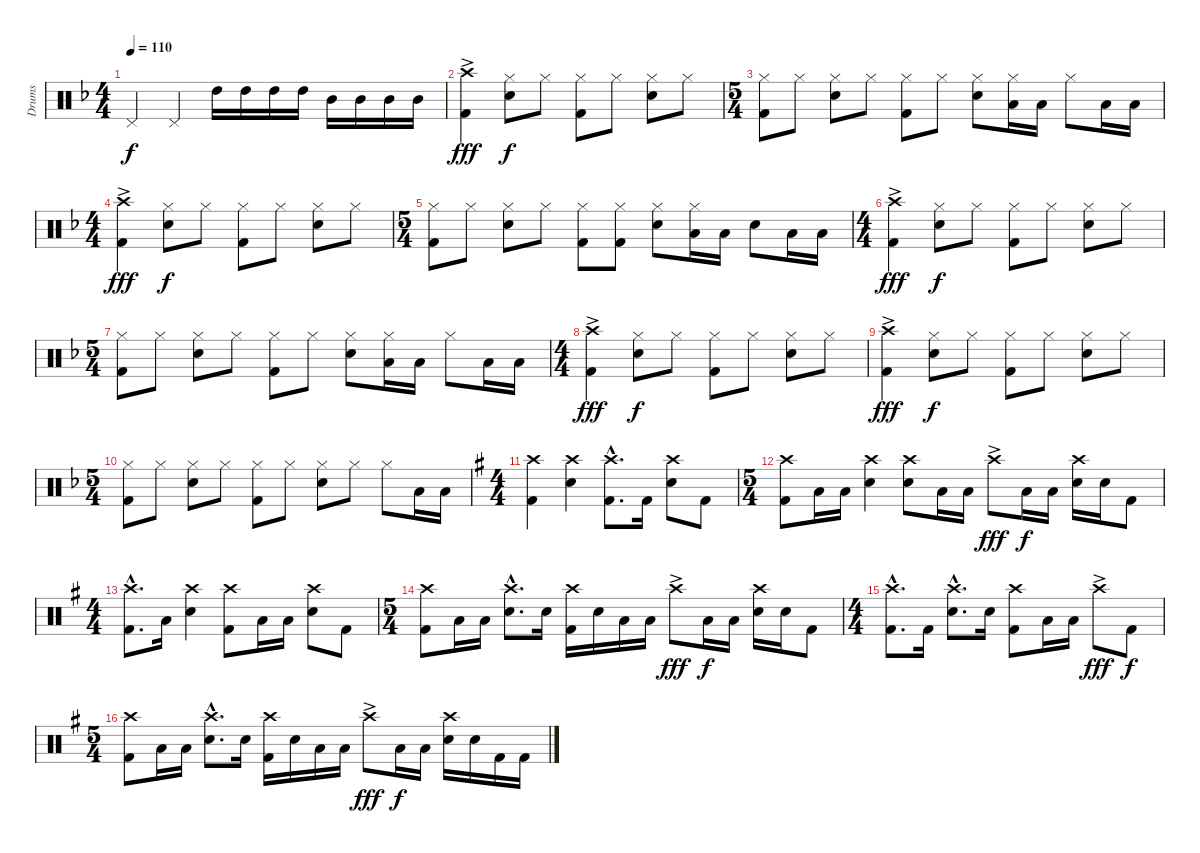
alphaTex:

\track ("Drums" "Drums") {instrument percussion}
\staff {score}
\articulation defaults
\ts (4 4)
\tempo 110
\clef neutral
\ks f "Pedal Hi-Hat (hit)".4{dy f} "Pedal Hi-Hat (hit)".4 "High Tom (hit)".16 "High Tom (hit)".16 "High Tom (hit)".16 "High Tom (hit)".16 "Mid Tom (hit)".16 "Mid Tom (hit)".16 "Mid Tom (hit)".16 "Mid Tom (hit)".16
|
("Kick (hit) 2" "Crash high (hit)"{ac}).4{dy fff} ("Snare (hit) 2" "Hi-Hat (closed)").8{dy f} "Hi-Hat (closed)".8 ("Kick (hit) 2" "Hi-Hat (closed)").8 "Hi-Hat (closed)".8 ("Snare (hit) 2" "Hi-Hat (closed)").8 "Hi-Hat (closed)".8 |
\ts (5 4)
("Kick (hit) 2" "Hi-Hat (closed)").8 "Hi-Hat (closed)".8 ("Snare (hit) 2" "Hi-Hat (closed)").8 "Hi-Hat (closed)".8 ("Kick (hit) 2" "Hi-Hat (closed)").8 "Hi-Hat (closed)".8 ("Snare (hit) 2" "Hi-Hat (closed)").8 ("Low Floor Tom (hit)" "Hi-Hat (closed)").16 "Low Floor Tom (hit)".16 "Hi-Hat (closed)".8 "Low Floor Tom (hit)".16 "Low Floor Tom (hit)".16 |
\ts (4 4)
("Kick (hit) 2" "Crash high (hit)"{ac}).4{dy fff} ("Snare (hit) 2" "Hi-Hat (closed)").8{dy f} "Hi-Hat (closed)".8 ("Kick (hit) 2" "Hi-Hat (closed)").8 "Hi-Hat (closed)".8 ("Snare (hit) 2" "Hi-Hat (closed)").8 "Hi-Hat (closed)".8 |
\ts (5 4)
("Kick (hit) 2" "Hi-Hat (closed)").8 "Hi-Hat (closed)".8 ("Snare (hit) 2" "Hi-Hat (closed)").8 "Hi-Hat (closed)".8 ("Kick (hit) 2" "Hi-Hat (closed)").8 ("Kick (hit) 2" "Hi-Hat (closed)").8 ("Snare (hit) 2" "Hi-Hat (closed)").8 ("Low Floor Tom (hit)" "Hi-Hat (closed)").16 "Low Floor Tom (hit)".16 "Snare (hit) 2".8 "Low Floor Tom (hit)".16 "Low Floor Tom (hit)".16 |
\ts (4 4)
("Kick (hit) 2" "Crash high (hit)"{ac}).4{dy fff} ("Snare (hit) 2" "Hi-Hat (closed)").8{dy f} "Hi-Hat (closed)".8 ("Kick (hit) 2" "Hi-Hat (closed)").8 "Hi-Hat (closed)".8 ("Snare (hit) 2" "Hi-Hat (closed)").8 "Hi-Hat (closed)".8 |
\ts (5 4)
("Kick (hit) 2" "Hi-Hat (closed)").8 "Hi-Hat (closed)".8 ("Snare (hit) 2" "Hi-Hat (closed)").8 "Hi-Hat (closed)".8 ("Kick (hit) 2" "Hi-Hat (closed)").8 "Hi-Hat (closed)".8 ("Snare (hit) 2" "Hi-Hat (closed)").8 ("Low Floor Tom (hit)" "Hi-Hat (closed)").16 "Low Floor Tom (hit)".16 "Hi-Hat (closed)".8 "Low Floor Tom (hit)".16 "Low Floor Tom (hit)".16 |
\ts (4 4)
("Kick (hit) 2" "Crash high (hit)"{ac}).4{dy fff} ("Snare (hit) 2" "Hi-Hat (closed)").8{dy f} "Hi-Hat (closed)".8 ("Kick (hit) 2" "Hi-Hat (closed)").8 "Hi-Hat (closed)".8 ("Snare (hit) 2" "Hi-Hat (closed)").8 "Hi-Hat (closed)".8 |
("Kick (hit) 2" "Crash high (hit)"{ac}).4{dy fff} ("Snare (hit) 2" "Hi-Hat (closed)").8{dy f} "Hi-Hat (closed)".8 ("Kick (hit) 2" "Hi-Hat (closed)").8 "Hi-Hat (closed)".8 ("Snare (hit) 2" "Hi-Hat (closed)").8 "Hi-Hat (closed)".8 |
\ts (5 4)
("Kick (hit) 2" "Hi-Hat (closed)").8 "Hi-Hat (closed)".8 ("Snare (hit) 2" "Hi-Hat (closed)").8 "Hi-Hat (closed)".8 ("Kick (hit) 2" "Hi-Hat (closed)").8 "Hi-Hat (closed)".8 ("Snare (hit) 2" "Hi-Hat (closed)").8 "Hi-Hat (closed)".8 "Hi-Hat (closed)".8 "Low Floor Tom (hit)".16 "Low Floor Tom (hit)".16 |
\ts (4 4)
\ks g
("Kick (hit) 2" "Crash high (hit)").4 ("Snare (hit) 2" "Crash high (hit)").4 ("Kick (hit) 2"{hac} "Crash high (hit)"{hac}).8{d} "Kick (hit) 2".16 ("Snare (hit) 2" "Crash high (hit)").8 "Kick (hit) 2".8 |
\ts (5 4)
("Kick (hit) 2" "Crash high (hit)").8 "Low Floor Tom (hit)".16 "Low Floor Tom (hit)".16 ("Snare (hit) 2" "Crash high (hit)").4 ("Snare (hit) 2" "Crash high (hit)").8 "Low Floor Tom (hit)".16 "Low Floor Tom (hit)".16 "Crash high (hit)"{ac}.8{dy fff} "Low Floor Tom (hit)".16{dy f} "Low Floor Tom (hit)".16 ("Snare (hit) 2" "Crash high (hit)").16 "Snare (hit) 2".16 "Kick (hit) 2".8 |
\ts (4 4)
("Kick (hit) 2"{hac} "Crash high (hit)"{hac}).8{d} "Low Floor Tom (hit)".16 ("Snare (hit) 2" "Crash high (hit)").4 ("Kick (hit) 2" "Crash high (hit)").8 "Low Floor Tom (hit)".16 "Low Floor Tom (hit)".16 ("Snare (hit) 2" "Crash high (hit)").8 "Kick (hit) 2".8 |
\ts (5 4)
("Kick (hit) 2" "Crash high (hit)").8 "Low Floor Tom (hit)".16 "Low Floor Tom (hit)".16 ("Snare (hit) 2"{hac} "Crash high (hit)"{hac}).8{d} "Snare (hit) 2".16 ("Kick (hit) 2" "Crash high (hit)").16 "Snare (hit) 2".16 "Low Floor Tom (hit)".16 "Low Floor Tom (hit)".16 "Crash high (hit)"{ac}.8{dy fff} "Low Floor Tom (hit)".16{dy f} "Low Floor Tom (hit)".16 ("Snare (hit) 2" "Crash high (hit)").16 "Snare (hit) 2".16 "Kick (hit) 2".8 |
\ts (4 4)
("Kick (hit) 2"{hac} "Crash high (hit)"{hac}).8{d} "Kick (hit) 2".16 ("Snare (hit) 2"{hac} "Crash high (hit)"{hac}).8{d} "Snare (hit) 2".16 ("Kick (hit) 2" "Crash high (hit)").8 "Low Floor Tom (hit)".16 "Low Floor Tom (hit)".16 "Crash high (hit)"{ac}.8{dy fff} "Kick (hit) 2".8{dy f} |
\ts (5 4)
("Kick (hit) 2" "Crash high (hit)").8 "Low Floor Tom (hit)".16 "Low Floor Tom (hit)".16 ("Snare (hit) 2"{hac} "Crash high (hit)"{hac}).8{d} "Snare (hit) 2".16 ("Kick (hit) 2" "Crash high (hit)").16 "Snare (hit) 2".16 "Low Floor Tom (hit)".16 "Low Floor Tom (hit)".16 "Crash high (hit)"{ac}.8{dy fff} "Low Floor Tom (hit)".16{dy f} "Low Floor Tom (hit)".16 ("Snare (hit) 2" "Crash high (hit)").16 "Snare (hit) 2".16 "Kick (hit) 2".16 "Kick (hit) 2".16
